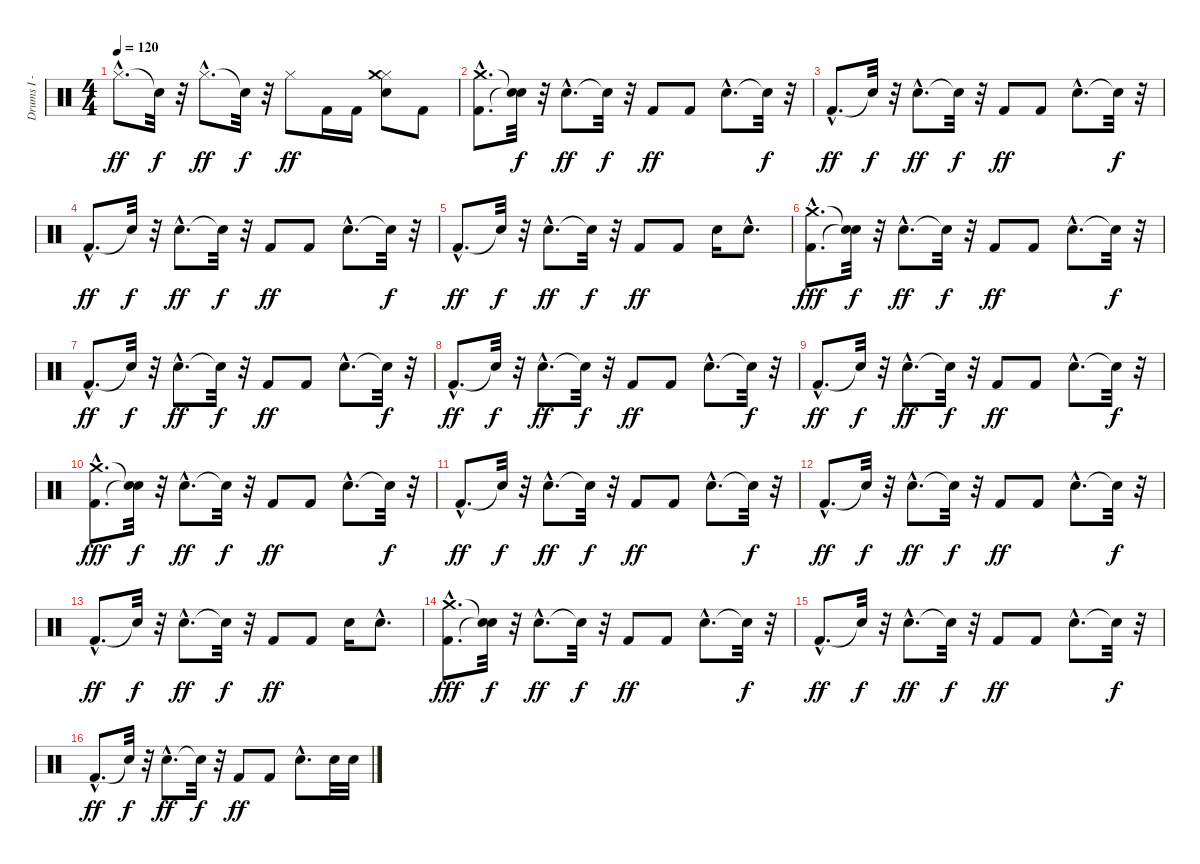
\track ("Drums I - Bobby Schayer" "Drums I - ") {instrument percussion}
\staff {score}
\articulation defaults
\ts (4 4)
\tempo 120
\clef neutral
\ks c "Hi-Hat (closed)"{hac}.8{d dy ff} "Snare (hit)"{t}.32{dy f}
r.32 "Hi-Hat (closed)"{hac}.8{d dy ff} "Snare (hit)"{t}.32{dy f} r.32 "Hi-Hat (closed)".8{dy ff} "Kick (hit) 2".16 "Kick (hit) 2".16 ("Snare (hit) 2" "Hi-Hat (closed)" "Crash medium (hit)").8 "Kick (hit) 2".8 |
("Kick (hit) 2"{hac} "Crash medium (hit)"{hac}).8{d} ("Snare (hit)"{t} "Snare (hit)"{t}).32{dy f} r.32 "Snare (hit) 2"{hac}.8{d dy ff} "Snare (hit)"{t}.32{dy f} r.32 "Kick (hit) 2".8{dy ff} "Kick (hit) 2".8 "Snare (hit) 2"{hac}.8{d} "Snare (hit)"{t}.32{dy f} r.32 |
"Kick (hit) 2"{hac}.8{d dy ff} "Snare (hit)"{t}.32{dy f} r.32 "Snare (hit) 2"{hac}.8{d dy ff} "Snare (hit)"{t}.32{dy f} r.32 "Kick (hit) 2".8{dy ff} "Kick (hit) 2".8 "Snare (hit) 2"{hac}.8{d} "Snare (hit)"{t}.32{dy f} r.32 |
"Kick (hit) 2"{hac}.8{d dy ff} "Snare (hit)"{t}.32{dy f} r.32 "Snare (hit) 2"{hac}.8{d dy ff} "Snare (hit)"{t}.32{dy f} r.32 "Kick (hit) 2".8{dy ff} "Kick (hit) 2".8 "Snare (hit) 2"{hac}.8{d} "Snare (hit)"{t}.32{dy f} r.32 |
"Kick (hit) 2"{hac}.8{d dy ff} "Snare (hit)"{t}.32{dy f} r.32 "Snare (hit) 2"{hac}.8{d dy ff} "Snare (hit)"{t}.32{dy f} r.32 "Kick (hit) 2".8{dy ff} "Kick (hit) 2".8 "Snare (hit) 2".16 "Snare (hit) 2"{hac}.8{d} |
("Kick (hit) 2"{hac} "Crash medium (hit)"{hac}).8{d dy fff} ("Snare (hit)"{t} "Snare (hit)"{t}).32{dy f} r.32 "Snare (hit) 2"{hac}.8{d dy ff} "Snare (hit)"{t}.32{dy f} r.32 "Kick (hit) 2".8{dy ff} "Kick (hit) 2".8 "Snare (hit) 2"{hac}.8{d} "Snare (hit)"{t}.32{dy f} r.32 |
"Kick (hit) 2"{hac}.8{d dy ff} "Snare (hit)"{t}.32{dy f} r.32 "Snare (hit) 2"{hac}.8{d dy ff} "Snare (hit)"{t}.32{dy f} r.32 "Kick (hit) 2".8{dy ff} "Kick (hit) 2".8 "Snare (hit) 2"{hac}.8{d} "Snare (hit)"{t}.32{dy f} r.32 |
"Kick (hit) 2"{hac}.8{d dy ff} "Snare (hit)"{t}.32{dy f} r.32 "Snare (hit) 2"{hac}.8{d dy ff} "Snare (hit)"{t}.32{dy f} r.32 "Kick (hit) 2".8{dy ff} "Kick (hit) 2".8 "Snare (hit) 2"{hac}.8{d} "Snare (hit)"{t}.32{dy f} r.32 |
"Kick (hit) 2"{hac}.8{d dy ff} "Snare (hit)"{t}.32{dy f} r.32 "Snare (hit) 2"{hac}.8{d dy ff} "Snare (hit)"{t}.32{dy f} r.32 "Kick (hit) 2".8{dy ff} "Kick (hit) 2".8 "Snare (hit) 2"{hac}.8{d} "Snare (hit)"{t}.32{dy f} r.32 |
("Kick (hit) 2"{hac} "Crash medium (hit)"{hac}).8{d dy fff} ("Snare (hit)"{t} "Snare (hit)"{t}).32{dy f} r.32 "Snare (hit) 2"{hac}.8{d dy ff} "Snare (hit)"{t}.32{dy f} r.32 "Kick (hit) 2".8{dy ff} "Kick (hit) 2".8 "Snare (hit) 2"{hac}.8{d} "Snare (hit)"{t}.32{dy f} r.32 |
"Kick (hit) 2"{hac}.8{d dy ff} "Snare (hit)"{t}.32{dy f} r.32 "Snare (hit) 2"{hac}.8{d dy ff} "Snare (hit)"{t}.32{dy f} r.32 "Kick (hit) 2".8{dy ff} "Kick (hit) 2".8 "Snare (hit) 2"{hac}.8{d} "Snare (hit)"{t}.32{dy f} r.32 |
"Kick (hit) 2"{hac}.8{d dy ff} "Snare (hit)"{t}.32{dy f} r.32 "Snare (hit) 2"{hac}.8{d dy ff} "Snare (hit)"{t}.32{dy f} r.32 "Kick (hit) 2".8{dy ff} "Kick (hit) 2".8 "Snare (hit) 2"{hac}.8{d} "Snare (hit)"{t}.32{dy f} r.32 |
"Kick (hit) 2"{hac}.8{d dy ff} "Snare (hit)"{t}.32{dy f} r.32 "Snare (hit) 2"{hac}.8{d dy ff} "Snare (hit)"{t}.32{dy f} r.32 "Kick (hit) 2".8{dy ff} "Kick (hit) 2".8 "Snare (hit) 2".16 "Snare (hit) 2"{hac}.8{d} |
("Kick (hit) 2"{hac} "Crash medium (hit)"{hac}).8{d dy fff} ("Snare (hit)"{t} "Snare (hit)"{t}).32{dy f} r.32 "Snare (hit) 2"{hac}.8{d dy ff} "Snare (hit)"{t}.32{dy f} r.32 "Kick (hit) 2".8{dy ff} "Kick (hit) 2".8 "Snare (hit) 2"{hac}.8{d} "Snare (hit)"{t}.32{dy f} r.32 |
"Kick (hit) 2"{hac}.8{d dy ff} "Snare (hit)"{t}.32{dy f} r.32 "Snare (hit) 2"{hac}.8{d dy ff} "Snare (hit)"{t}.32{dy f} r.32 "Kick (hit) 2".8{dy ff} "Kick (hit) 2".8 "Snare (hit) 2"{hac}.8{d} "Snare (hit)"{t}.32{dy f} r.32 |
"Kick (hit) 2"{hac}.8{d dy ff} "Snare (hit)"{t}.32{dy f} r.32 "Snare (hit) 2"{hac}.8{d dy ff} "Snare (hit)"{t}.32{dy f} r.32 "Kick (hit) 2".8{dy ff} "Kick (hit) 2".8 "Snare (hit) 2"{hac}.8{d} "Snare (hit) 2".32 "Snare (hit) 2".32
